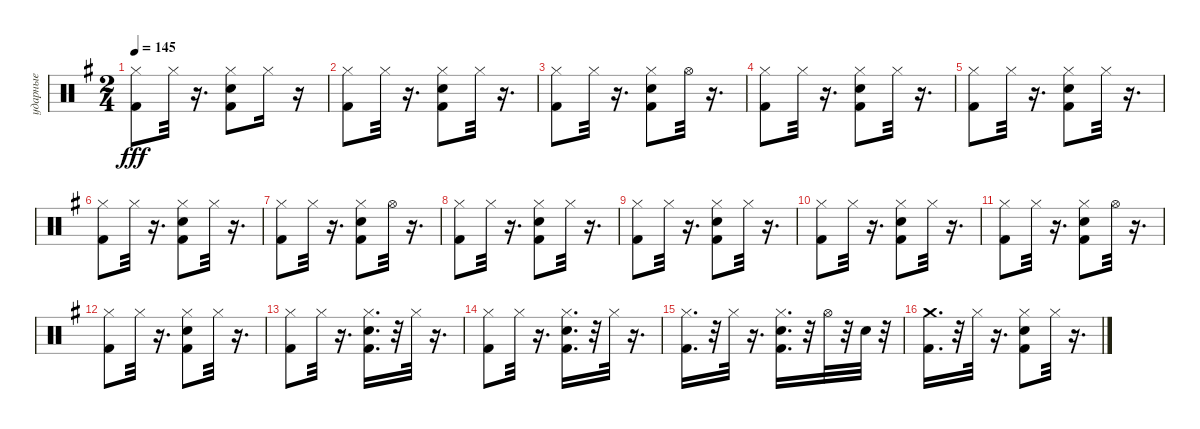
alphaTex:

\track ("ударные" "ударные") {instrument percussion}
\staff {score}
\articulation defaults
\ts (2 4)
\tempo 145
\clef neutral
\ks eminor
("Kick (hit) 2" "Hi-Hat (closed)").8{dy fff} "Hi-Hat (closed)".32 r.16{d} ("Hi-Hat (closed)" "Snare (hit) 2" "Kick (hit) 2").8 "Hi-Hat (closed)".16 r.16 |
("Kick (hit) 2" "Hi-Hat (closed)").8 "Hi-Hat (closed)".32 r.16{d} ("Snare (hit) 2" "Kick (hit) 2" "Hi-Hat (closed)").8 "Hi-Hat (closed)".32 r.16{d} |
("Kick (hit) 2" "Hi-Hat (closed)").8 "Hi-Hat (closed)".32 r.16{d} ("Kick (hit) 2" "Snare (hit) 2" "Hi-Hat (closed)").8 "Hi-Hat (open)".32 r.16{d} |
("Kick (hit) 2" "Hi-Hat (closed)").8 "Hi-Hat (closed)".32 r.16{d} ("Snare (hit) 2" "Kick (hit) 2" "Hi-Hat (closed)").8 "Hi-Hat (closed)".32 r.16{d} |
("Kick (hit) 2" "Hi-Hat (closed)").8 "Hi-Hat (closed)".32 r.16{d} ("Snare (hit) 2" "Kick (hit) 2" "Hi-Hat (closed)").8 "Hi-Hat (closed)".32 r.16{d} |
("Kick (hit) 2" "Hi-Hat (closed)").8 "Hi-Hat (closed)".32 r.16{d} ("Snare (hit) 2" "Kick (hit) 2" "Hi-Hat (closed)").8 "Hi-Hat (closed)".32 r.16{d} |
("Kick (hit) 2" "Hi-Hat (closed)").8 "Hi-Hat (closed)".32 r.16{d} ("Snare (hit) 2" "Kick (hit) 2" "Hi-Hat (closed)").8 "Hi-Hat (open)".32 r.16{d} |
("Kick (hit) 2" "Hi-Hat (closed)").8 "Hi-Hat (closed)".32 r.16{d} ("Snare (hit) 2" "Kick (hit) 2" "Hi-Hat (closed)").8 "Hi-Hat (closed)".32 r.16{d} |
("Kick (hit) 2" "Hi-Hat (closed)").8 "Hi-Hat (closed)".32 r.16{d} ("Snare (hit) 2" "Kick (hit) 2" "Hi-Hat (closed)").8 "Hi-Hat (closed)".32 r.16{d} |
("Kick (hit) 2" "Hi-Hat (closed)").8 "Hi-Hat (closed)".32 r.16{d} ("Kick (hit) 2" "Hi-Hat (closed)" "Snare (hit) 2").8 "Hi-Hat (closed)".32 r.16{d} |
("Kick (hit) 2" "Hi-Hat (closed)").8 "Hi-Hat (closed)".32 r.16{d} ("Snare (hit) 2" "Kick (hit) 2" "Hi-Hat (closed)").8 "Hi-Hat (open)".32 r.16{d} |
("Kick (hit) 2" "Hi-Hat (closed)").8 "Hi-Hat (closed)".32 r.16{d} ("Snare (hit) 2" "Kick (hit) 2" "Hi-Hat (closed)").8 "Hi-Hat (closed)".32 r.16{d} |
("Kick (hit) 2" "Hi-Hat (closed)").8 "Hi-Hat (closed)".32 r.16{d} ("Snare (hit) 2" "Kick (hit) 2" "Hi-Hat (closed)").16{d} r.32 "Hi-Hat (closed)".32 r.16{d} |
("Kick (hit) 2" "Hi-Hat (closed)").8 "Hi-Hat (closed)".32 r.16{d} ("Snare (hit) 2" "Kick (hit) 2" "Hi-Hat (closed)").16{d} r.32 "Hi-Hat (closed)".32 r.16{d} |
("Kick (hit) 2" "Hi-Hat (closed)").16{d} r.32 "Hi-Hat (closed)".32 r.16{d} ("Snare (hit) 2" "Kick (hit) 2" "Hi-Hat (closed)").16{d} r.32 "Hi-Hat (open)".32 r.32 "Snare (hit) 2".32 r.32 |
("Kick (hit) 2" "Crash medium (hit)").16{d} r.32 "Hi-Hat (closed)".32 r.16{d} ("Hi-Hat (closed)" "Kick (hit) 2" "Snare (hit) 2").8 "Hi-Hat (closed)".32 r.16{d}
